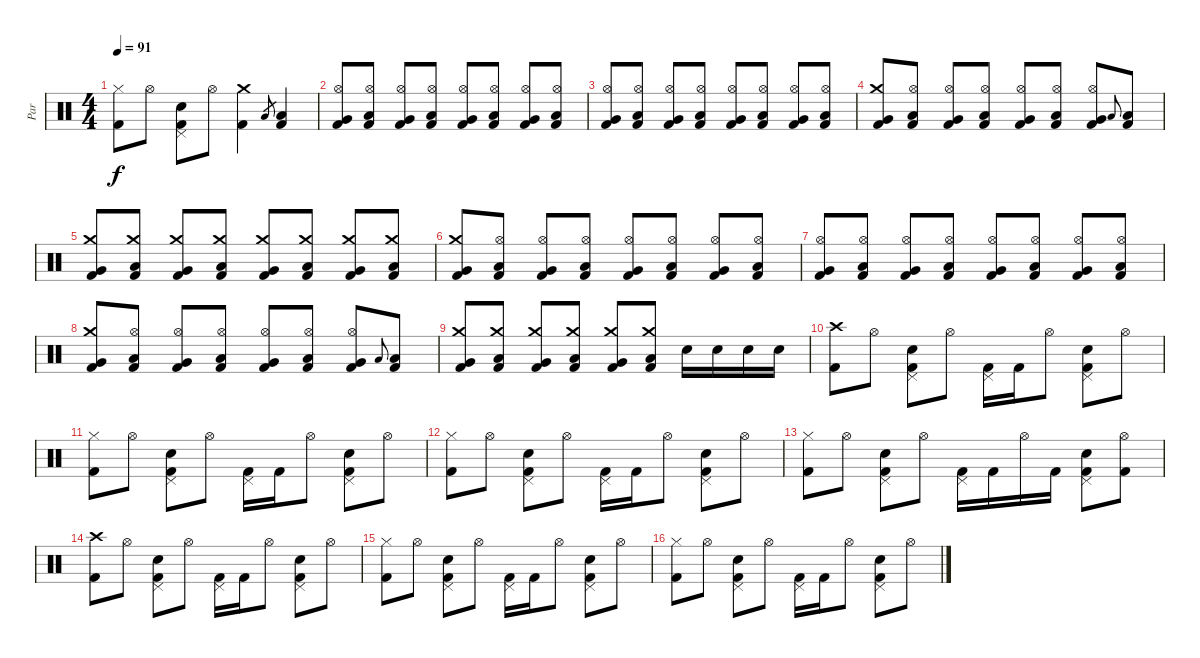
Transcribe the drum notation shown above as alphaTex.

\track ("Par" "Par") {instrument percussion}
\staff {score}
\articulation defaults
\ts (4 4)
\tempo 91
\clef neutral
\ks c
("Hi-Hat (closed)" "Kick (hit) 2").8{dy f} "Hi-Hat (open)".8 ("Pedal Hi-Hat (hit)" "Snare (hit) 2" "Kick (hit) 2").8 "Hi-Hat (open)".8 ("Crash medium (hit)" "Kick (hit) 2").4 "Low Floor Tom (hit)".8{gr} ("Low Floor Tom (hit)" "Kick (hit) 2").4 |
("Hi-Hat (open)" "Very Low Tom (hit)" "Kick (hit) 2").8 ("Hi-Hat (open)" "Low Floor Tom (hit)" "Kick (hit) 2").8 ("Hi-Hat (open)" "Very Low Tom (hit)" "Kick (hit) 2").8 ("Hi-Hat (open)" "Low Floor Tom (hit)" "Kick (hit) 2").8 ("Hi-Hat (open)" "Very Low Tom (hit)" "Kick (hit) 2").8 ("Hi-Hat (open)" "Low Floor Tom (hit)" "Kick (hit) 2").8 ("Hi-Hat (open)" "Very Low Tom (hit)" "Kick (hit) 2").8 ("Hi-Hat (open)" "Low Floor Tom (hit)" "Kick (hit) 2").8 |
("Hi-Hat (open)" "Very Low Tom (hit)" "Kick (hit) 2").8 ("Hi-Hat (open)" "Low Floor Tom (hit)" "Kick (hit) 2").8 ("Hi-Hat (open)" "Very Low Tom (hit)" "Kick (hit) 2").8 ("Hi-Hat (open)" "Low Floor Tom (hit)" "Kick (hit) 2").8 ("Hi-Hat (open)" "Very Low Tom (hit)" "Kick (hit) 2").8 ("Hi-Hat (open)" "Low Floor Tom (hit)" "Kick (hit) 2").8 ("Hi-Hat (open)" "Very Low Tom (hit)" "Kick (hit) 2").8 ("Hi-Hat (open)" "Low Floor Tom (hit)" "Kick (hit) 2").8 |
("Crash medium (hit)" "Very Low Tom (hit)" "Kick (hit) 2").8 ("Hi-Hat (open)" "Low Floor Tom (hit)" "Kick (hit) 2").8 ("Hi-Hat (open)" "Very Low Tom (hit)" "Kick (hit) 2").8 ("Hi-Hat (open)" "Low Floor Tom (hit)" "Kick (hit) 2").8 ("Hi-Hat (open)" "Very Low Tom (hit)" "Kick (hit) 2").8 ("Hi-Hat (open)" "Low Floor Tom (hit)" "Kick (hit) 2").8 ("Hi-Hat (open)" "Very Low Tom (hit)" "Kick (hit) 2").8 "Low Floor Tom (hit)".8{gr onbeat} ("Low Floor Tom (hit)" "Kick (hit) 2").8 |
("Crash medium (hit)" "Very Low Tom (hit)" "Kick (hit) 2").8 ("Crash medium (hit)" "Low Floor Tom (hit)" "Kick (hit) 2").8 ("Crash medium (hit)" "Very Low Tom (hit)" "Kick (hit) 2").8 ("Crash medium (hit)" "Low Floor Tom (hit)" "Kick (hit) 2").8 ("Crash medium (hit)" "Very Low Tom (hit)" "Kick (hit) 2").8 ("Crash medium (hit)" "Low Floor Tom (hit)" "Kick (hit) 2").8 ("Crash medium (hit)" "Very Low Tom (hit)" "Kick (hit) 2").8 ("Crash medium (hit)" "Low Floor Tom (hit)" "Kick (hit) 2").8 |
("Crash medium (hit)" "Very Low Tom (hit)" "Kick (hit) 2").8 ("Hi-Hat (open)" "Low Floor Tom (hit)" "Kick (hit) 2").8 ("Hi-Hat (open)" "Very Low Tom (hit)" "Kick (hit) 2").8 ("Hi-Hat (open)" "Low Floor Tom (hit)" "Kick (hit) 2").8 ("Hi-Hat (open)" "Very Low Tom (hit)" "Kick (hit) 2").8 ("Hi-Hat (open)" "Low Floor Tom (hit)" "Kick (hit) 2").8 ("Hi-Hat (open)" "Very Low Tom (hit)" "Kick (hit) 2").8 ("Hi-Hat (open)" "Low Floor Tom (hit)" "Kick (hit) 2").8 |
("Hi-Hat (open)" "Very Low Tom (hit)" "Kick (hit) 2").8 ("Hi-Hat (open)" "Low Floor Tom (hit)" "Kick (hit) 2").8 ("Hi-Hat (open)" "Very Low Tom (hit)" "Kick (hit) 2").8 ("Hi-Hat (open)" "Low Floor Tom (hit)" "Kick (hit) 2").8 ("Hi-Hat (open)" "Very Low Tom (hit)" "Kick (hit) 2").8 ("Hi-Hat (open)" "Low Floor Tom (hit)" "Kick (hit) 2").8 ("Hi-Hat (open)" "Very Low Tom (hit)" "Kick (hit) 2").8 ("Hi-Hat (open)" "Low Floor Tom (hit)" "Kick (hit) 2").8 |
("Crash medium (hit)" "Very Low Tom (hit)" "Kick (hit) 2").8 ("Hi-Hat (open)" "Low Floor Tom (hit)" "Kick (hit) 2").8 ("Hi-Hat (open)" "Very Low Tom (hit)" "Kick (hit) 2").8 ("Hi-Hat (open)" "Low Floor Tom (hit)" "Kick (hit) 2").8 ("Hi-Hat (open)" "Very Low Tom (hit)" "Kick (hit) 2").8 ("Hi-Hat (open)" "Low Floor Tom (hit)" "Kick (hit) 2").8 ("Hi-Hat (open)" "Very Low Tom (hit)" "Kick (hit) 2").8 "Low Floor Tom (hit)".8{gr onbeat} ("Low Floor Tom (hit)" "Kick (hit) 2").8 |
("Crash medium (hit)" "Very Low Tom (hit)" "Kick (hit) 2").8 ("Crash medium (hit)" "Low Floor Tom (hit)" "Kick (hit) 2").8 ("Crash medium (hit)" "Very Low Tom (hit)" "Kick (hit) 2").8 ("Crash medium (hit)" "Low Floor Tom (hit)" "Kick (hit) 2").8 ("Crash medium (hit)" "Very Low Tom (hit)" "Kick (hit) 2").8 ("Crash medium (hit)" "Low Floor Tom (hit)" "Kick (hit) 2").8 "Snare (hit) 2".16 "Snare (hit) 2".16 "Snare (hit) 2".16 "Snare (hit) 2".16 |
("Crash high (hit)" "Kick (hit) 2").8 "Hi-Hat (open)".8 ("Pedal Hi-Hat (hit)" "Snare (hit) 2" "Kick (hit) 2").8 "Hi-Hat (open)".8 ("Pedal Hi-Hat (hit)" "Kick (hit) 2").16 "Kick (hit) 2".16 "Hi-Hat (open)".8 ("Pedal Hi-Hat (hit)" "Snare (hit) 2" "Kick (hit) 2").8 "Hi-Hat (open)".8 |
("Hi-Hat (closed)" "Kick (hit) 2").8 "Hi-Hat (open)".8 ("Pedal Hi-Hat (hit)" "Snare (hit) 2" "Kick (hit) 2").8 "Hi-Hat (open)".8 ("Pedal Hi-Hat (hit)" "Kick (hit) 2").16 "Kick (hit) 2".16 "Hi-Hat (open)".8 ("Pedal Hi-Hat (hit)" "Snare (hit) 2" "Kick (hit) 2").8 "Hi-Hat (open)".8 |
("Hi-Hat (closed)" "Kick (hit) 2").8 "Hi-Hat (open)".8 ("Pedal Hi-Hat (hit)" "Snare (hit) 2" "Kick (hit) 2").8 "Hi-Hat (open)".8 ("Pedal Hi-Hat (hit)" "Kick (hit) 2").16 "Kick (hit) 2".16 "Hi-Hat (open)".8 ("Pedal Hi-Hat (hit)" "Snare (hit) 2" "Kick (hit) 2").8 "Hi-Hat (open)".8 |
("Hi-Hat (closed)" "Kick (hit) 2").8 "Hi-Hat (open)".8 ("Pedal Hi-Hat (hit)" "Snare (hit) 2" "Kick (hit) 2").8 "Hi-Hat (open)".8 ("Pedal Hi-Hat (hit)" "Kick (hit) 2").16 "Kick (hit) 2".16 "Hi-Hat (open)".16 "Kick (hit) 2".16 ("Pedal Hi-Hat (hit)" "Snare (hit) 2" "Kick (hit) 2").8 ("Hi-Hat (open)" "Kick (hit) 2").8 |
("Crash high (hit)" "Kick (hit) 2").8 "Hi-Hat (open)".8 ("Pedal Hi-Hat (hit)" "Snare (hit) 2" "Kick (hit) 2").8 "Hi-Hat (open)".8 ("Pedal Hi-Hat (hit)" "Kick (hit) 2").16 "Kick (hit) 2".16 "Hi-Hat (open)".8 ("Pedal Hi-Hat (hit)" "Snare (hit) 2" "Kick (hit) 2").8 "Hi-Hat (open)".8 |
("Hi-Hat (closed)" "Kick (hit) 2").8 "Hi-Hat (open)".8 ("Pedal Hi-Hat (hit)" "Snare (hit) 2" "Kick (hit) 2").8 "Hi-Hat (open)".8 ("Pedal Hi-Hat (hit)" "Kick (hit) 2").16 "Kick (hit) 2".16 "Hi-Hat (open)".8 ("Pedal Hi-Hat (hit)" "Snare (hit) 2" "Kick (hit) 2").8 "Hi-Hat (open)".8 |
("Hi-Hat (closed)" "Kick (hit) 2").8 "Hi-Hat (open)".8 ("Pedal Hi-Hat (hit)" "Snare (hit) 2" "Kick (hit) 2").8 "Hi-Hat (open)".8 ("Pedal Hi-Hat (hit)" "Kick (hit) 2").16 "Kick (hit) 2".16 "Hi-Hat (open)".8 ("Pedal Hi-Hat (hit)" "Snare (hit) 2" "Kick (hit) 2").8 "Hi-Hat (open)".8
